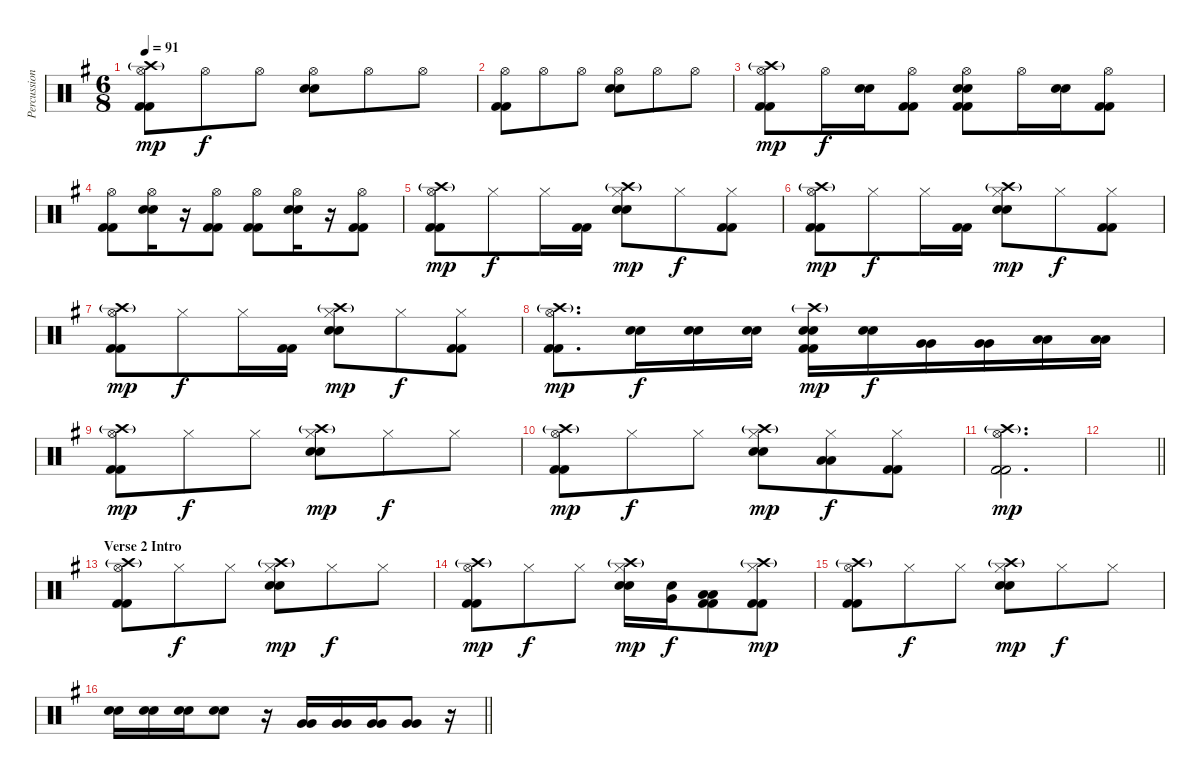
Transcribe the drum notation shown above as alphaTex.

\track ("Percussion" "Percussion") {instrument percussion}
\staff {score}
\articulation defaults
\ts (6 8)
\tempo 91
\clef neutral
\ks eminor
("Hi-Hat (open)" "Crash high (hit)"{g} "Kick (hit) 2" "Kick (hit) 2").8{dy mp} "Hi-Hat (open)".8{dy f} "Hi-Hat (open)".8 ("Hi-Hat (open)" "Snare (hit) 2" "Snare (hit) 2").8 "Hi-Hat (open)".8 "Hi-Hat (open)".8 |
("Hi-Hat (open)" "Kick (hit) 2" "Kick (hit) 2").8 "Hi-Hat (open)".8 "Hi-Hat (open)".8 ("Hi-Hat (open)" "Snare (hit) 2" "Snare (hit) 2").8 "Hi-Hat (open)".8 "Hi-Hat (open)".8 |
("Hi-Hat (open)" "Crash high (hit)"{g} "Kick (hit) 2" "Kick (hit) 2").8{dy mp} "Hi-Hat (open)".16{dy f} ("Snare (hit) 2" "Snare (hit) 2").16 ("Hi-Hat (open)" "Kick (hit) 2" "Kick (hit) 2").8 ("Hi-Hat (open)" "Snare (hit) 2" "Snare (hit) 2" "Kick (hit) 2" "Kick (hit) 2").8 "Hi-Hat (open)".16 ("Snare (hit) 2" "Snare (hit) 2").16 ("Hi-Hat (open)" "Kick (hit) 2" "Kick (hit) 2").8 |
("Hi-Hat (open)" "Kick (hit) 2" "Kick (hit) 2").8 ("Hi-Hat (open)" "Snare (hit) 2" "Snare (hit) 2").16 r.16 ("Hi-Hat (open)" "Kick (hit) 2" "Kick (hit) 2").8 ("Hi-Hat (open)" "Kick (hit) 2" "Kick (hit) 2").8 ("Hi-Hat (open)" "Snare (hit) 2" "Snare (hit) 2").16 r.16 ("Hi-Hat (open)" "Kick (hit) 2" "Kick (hit) 2").8 |
("Hi-Hat (open)" "Crash high (hit)"{g} "Kick (hit) 2" "Kick (hit) 2").8{dy mp} "Hi-Hat (closed)".8{dy f} "Hi-Hat (closed)".16 ("Kick (hit) 2" "Kick (hit) 2").16 ("Hi-Hat (closed)" "Crash high (hit)"{g} "Snare (hit) 2" "Snare (hit) 2").8{dy mp} "Hi-Hat (closed)".8{dy f} ("Hi-Hat (closed)" "Kick (hit) 2" "Kick (hit) 2").8 |
("Hi-Hat (open)" "Crash high (hit)"{g} "Kick (hit) 2" "Kick (hit) 2").8{dy mp} "Hi-Hat (closed)".8{dy f} "Hi-Hat (closed)".16 ("Kick (hit) 2" "Kick (hit) 2").16 ("Hi-Hat (closed)" "Crash high (hit)"{g} "Snare (hit) 2" "Snare (hit) 2").8{dy mp} "Hi-Hat (closed)".8{dy f} ("Hi-Hat (closed)" "Kick (hit) 2" "Kick (hit) 2").8 |
("Hi-Hat (open)" "Crash high (hit)"{g} "Kick (hit) 2" "Kick (hit) 2").8{dy mp} "Hi-Hat (closed)".8{dy f} "Hi-Hat (closed)".16 ("Kick (hit) 2" "Kick (hit) 2").16 ("Hi-Hat (closed)" "Crash high (hit)"{g} "Snare (hit) 2" "Snare (hit) 2").8{dy mp} "Hi-Hat (closed)".8{dy f} ("Hi-Hat (closed)" "Kick (hit) 2" "Kick (hit) 2").8 |
("Hi-Hat (open)" "Crash high (hit)"{g} "Kick (hit) 2" "Kick (hit) 2").8{d dy mp} ("Snare (hit) 2" "Snare (hit) 2").16{dy f} ("Snare (hit) 2" "Snare (hit) 2").16 ("Snare (hit) 2" "Snare (hit) 2").16 ("Crash high (hit)"{g} "Snare (hit) 2" "Snare (hit) 2" "Kick (hit) 2" "Kick (hit) 2").16{dy mp} ("Snare (hit) 2" "Snare (hit) 2").16{dy f} ("Very Low Tom (hit)" "Very Low Tom (hit)").16 ("Very Low Tom (hit)" "Very Low Tom (hit)").16 ("Low Floor Tom (hit)" "Low Floor Tom (hit)").16 ("Low Floor Tom (hit)" "Low Floor Tom (hit)").16 |
("Hi-Hat (open)" "Crash high (hit)"{g} "Kick (hit) 2" "Kick (hit) 2").8{dy mp} "Hi-Hat (closed)".8{dy f} "Hi-Hat (closed)".8 ("Hi-Hat (closed)" "Crash high (hit)"{g} "Snare (hit) 2" "Snare (hit) 2").8{dy mp} "Hi-Hat (closed)".8{dy f} "Hi-Hat (closed)".8 |
("Hi-Hat (open)" "Crash high (hit)"{g} "Kick (hit) 2" "Kick (hit) 2").8{dy mp} "Hi-Hat (closed)".8{dy f} "Hi-Hat (closed)".8 ("Hi-Hat (closed)" "Crash high (hit)"{g} "Snare (hit) 2" "Snare (hit) 2").8{dy mp} ("Hi-Hat (closed)" "Low Floor Tom (hit)" "Low Floor Tom (hit)").8{dy f} ("Hi-Hat (closed)" "Kick (hit) 2" "Kick (hit) 2").8 |
("Hi-Hat (open)" "Crash high (hit)"{g} "Kick (hit) 2" "Kick (hit) 2").2{d dy mp} |
\barLineRight lightlight
|
\section ("" "Verse 2 Intro")
("Hi-Hat (open)" "Crash high (hit)"{g} "Kick (hit) 2" "Kick (hit) 2").8 "Hi-Hat (closed)".8{dy f} "Hi-Hat (closed)".8 ("Hi-Hat (closed)" "Crash high (hit)"{g} "Snare (hit) 2" "Snare (hit) 2").8{dy mp} "Hi-Hat (closed)".8{dy f} "Hi-Hat (closed)".8 |
("Hi-Hat (open)" "Crash high (hit)"{g} "Kick (hit) 2" "Kick (hit) 2").8{dy mp} "Hi-Hat (closed)".8{dy f} "Hi-Hat (closed)".8 ("Hi-Hat (closed)" "Crash high (hit)"{g} "Snare (hit) 2" "Snare (hit) 2").16{dy mp} ("Snare (hit) 2" "Very Low Tom (hit)").16{dy f} ("Low Floor Tom (hit)" "Low Floor Tom (hit)" "Kick (hit) 2" "Kick (hit) 2").8 ("Hi-Hat (closed)" "Crash high (hit)"{g} "Kick (hit) 2" "Kick (hit) 2").8{dy mp} |
("Hi-Hat (open)" "Crash high (hit)"{g} "Kick (hit) 2" "Kick (hit) 2").8 "Hi-Hat (closed)".8{dy f} "Hi-Hat (closed)".8 ("Hi-Hat (closed)" "Crash high (hit)"{g} "Snare (hit) 2" "Snare (hit) 2").8{dy mp} "Hi-Hat (closed)".8{dy f} "Hi-Hat (closed)".8 |
\barLineRight lightlight
("Snare (hit) 2" "Snare (hit) 2").16 ("Snare (hit) 2" "Snare (hit) 2").16 ("Snare (hit) 2" "Snare (hit) 2").16 ("Snare (hit) 2" "Snare (hit) 2").8 r.16 ("Very Low Tom (hit)" "Very Low Tom (hit)").16 ("Very Low Tom (hit)" "Very Low Tom (hit)").16 ("Very Low Tom (hit)" "Very Low Tom (hit)").16 ("Very Low Tom (hit)" "Very Low Tom (hit)").8 r.16
